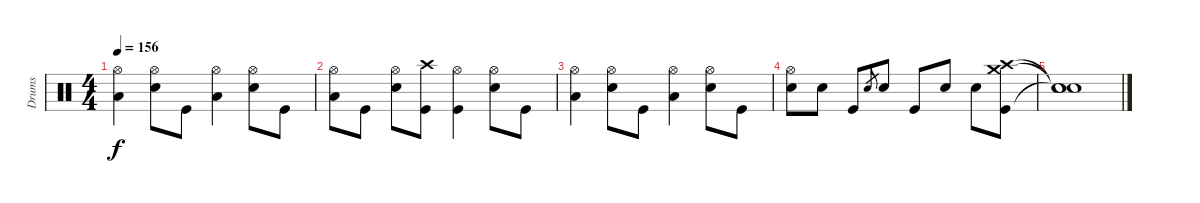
\track ("Drums" "Drums") {instrument percussion}
\staff {score}
\articulation defaults
\ts (4 4)
\tempo 156
\clef neutral
\ks c
("Hi-Hat (open)" "Low Tom (hit)").4{dy f} ("Hi-Hat (open)" "Snare (hit) 2").8 "Kick (hit)".8 ("Hi-Hat (open)" "Low Tom (hit)").4 ("Hi-Hat (open)" "Snare (hit) 2").8 "Kick (hit)".8 |
("Hi-Hat (open)" "Low Tom (hit)").8 "Kick (hit)".8 ("Hi-Hat (open)" "Snare (hit) 2").8 ("Crash high (hit)" "Kick (hit)").8 ("Hi-Hat (open)" "Kick (hit)").4 ("Hi-Hat (open)" "Snare (hit) 2").8 "Kick (hit)".8 |
("Hi-Hat (open)" "Low Tom (hit)").4 ("Hi-Hat (open)" "Snare (hit) 2").8 "Kick (hit)".8 ("Hi-Hat (open)" "Low Tom (hit)").4 ("Hi-Hat (open)" "Snare (hit) 2").8 "Kick (hit)".8 |
("Hi-Hat (open)" "Snare (hit) 2").8 "Snare (hit) 2".8 "Kick (hit)".8 "Snare (hit) 2".8{gr} "Snare (hit) 2".8 "Kick (hit)".8 "Snare (hit) 2".8 "Snare (hit) 2".8 ("Crash high (hit)" "Crash medium (hit)" "Kick (hit)").8 |
("Snare (hit)"{t} "Snare (hit)"{t} "Snare (hit)"{t}).1
